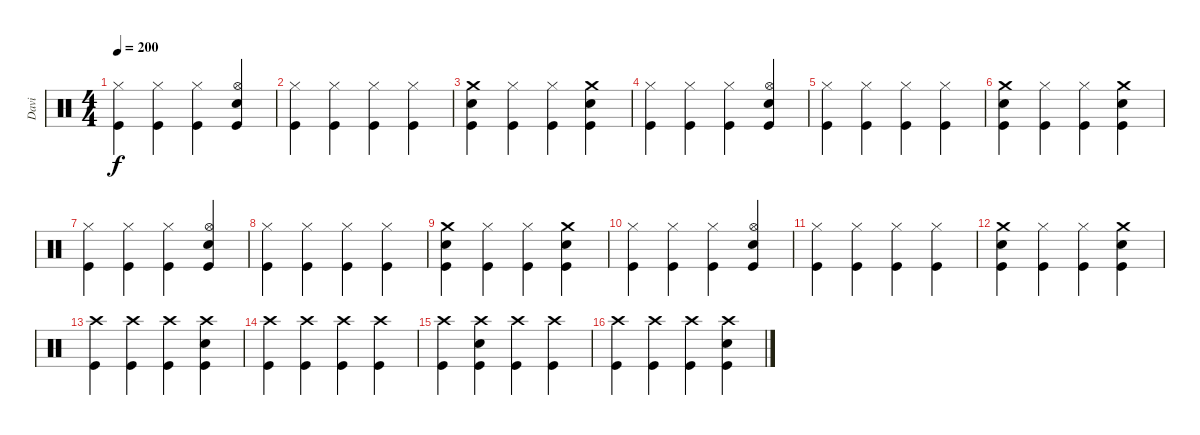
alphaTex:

\track ("Davi" "Davi") {instrument percussion}
\staff {score}
\articulation defaults
\ts (4 4)
\tempo 200
\clef neutral
\ks c
("Hi-Hat (closed)" "Kick (hit)").4{dy f} ("Hi-Hat (closed)" "Kick (hit)").4 ("Hi-Hat (closed)" "Kick (hit)").4 ("Hi-Hat (open)" "Electric Snare (hit)" "Kick (hit)").4 |
("Hi-Hat (closed)" "Kick (hit)").4 ("Hi-Hat (closed)" "Kick (hit)").4 ("Hi-Hat (closed)" "Kick (hit)").4 ("Hi-Hat (closed)" "Kick (hit)").4 |
("Crash medium (hit)" "Electric Snare (hit)" "Kick (hit)").4 ("Hi-Hat (closed)" "Kick (hit)").4 ("Hi-Hat (closed)" "Kick (hit)").4 ("Crash medium (hit)" "Electric Snare (hit)" "Kick (hit)").4 |
("Hi-Hat (closed)" "Kick (hit)").4 ("Hi-Hat (closed)" "Kick (hit)").4 ("Hi-Hat (closed)" "Kick (hit)").4 ("Hi-Hat (open)" "Electric Snare (hit)" "Kick (hit)").4 |
("Hi-Hat (closed)" "Kick (hit)").4 ("Hi-Hat (closed)" "Kick (hit)").4 ("Hi-Hat (closed)" "Kick (hit)").4 ("Hi-Hat (closed)" "Kick (hit)").4 |
("Crash medium (hit)" "Electric Snare (hit)" "Kick (hit)").4 ("Hi-Hat (closed)" "Kick (hit)").4 ("Hi-Hat (closed)" "Kick (hit)").4 ("Crash medium (hit)" "Electric Snare (hit)" "Kick (hit)").4 |
("Hi-Hat (closed)" "Kick (hit)").4 ("Hi-Hat (closed)" "Kick (hit)").4 ("Hi-Hat (closed)" "Kick (hit)").4 ("Hi-Hat (open)" "Electric Snare (hit)" "Kick (hit)").4 |
("Hi-Hat (closed)" "Kick (hit)").4 ("Hi-Hat (closed)" "Kick (hit)").4 ("Hi-Hat (closed)" "Kick (hit)").4 ("Hi-Hat (closed)" "Kick (hit)").4 |
("Crash medium (hit)" "Electric Snare (hit)" "Kick (hit)").4 ("Hi-Hat (closed)" "Kick (hit)").4 ("Hi-Hat (closed)" "Kick (hit)").4 ("Crash medium (hit)" "Electric Snare (hit)" "Kick (hit)").4 |
("Hi-Hat (closed)" "Kick (hit)").4 ("Hi-Hat (closed)" "Kick (hit)").4 ("Hi-Hat (closed)" "Kick (hit)").4 ("Hi-Hat (open)" "Electric Snare (hit)" "Kick (hit)").4 |
("Hi-Hat (closed)" "Kick (hit)").4 ("Hi-Hat (closed)" "Kick (hit)").4 ("Hi-Hat (closed)" "Kick (hit)").4 ("Hi-Hat (closed)" "Kick (hit)").4 |
("Crash medium (hit)" "Electric Snare (hit)" "Kick (hit)").4 ("Hi-Hat (closed)" "Kick (hit)").4 ("Hi-Hat (closed)" "Kick (hit)").4 ("Crash medium (hit)" "Electric Snare (hit)" "Kick (hit)").4 |
("Crash high (hit)" "Kick (hit)").4 ("Crash high (hit)" "Kick (hit)").4 ("Crash high (hit)" "Kick (hit)").4 ("Crash high (hit)" "Electric Snare (hit)" "Kick (hit)").4 |
("Crash high (hit)" "Kick (hit)").4 ("Crash high (hit)" "Kick (hit)").4 ("Crash high (hit)" "Kick (hit)").4 ("Crash high (hit)" "Kick (hit)").4 |
("Crash high (hit)" "Kick (hit)").4 ("Crash high (hit)" "Electric Snare (hit)" "Kick (hit)").4 ("Crash high (hit)" "Kick (hit)").4 ("Crash high (hit)" "Kick (hit)").4 |
("Crash high (hit)" "Kick (hit)").4 ("Crash high (hit)" "Kick (hit)").4 ("Crash high (hit)" "Kick (hit)").4 ("Crash high (hit)" "Electric Snare (hit)" "Kick (hit)").4
